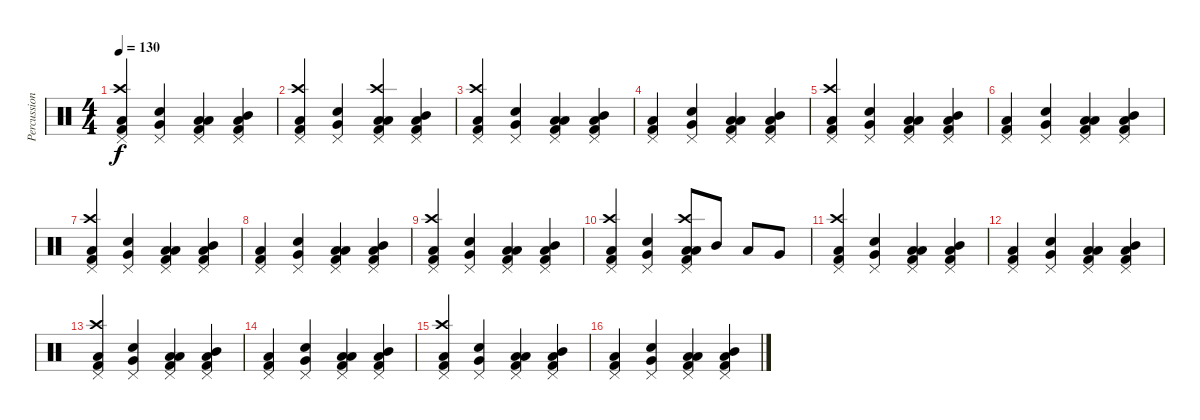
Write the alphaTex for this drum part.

\track ("Percussion" "Percussion") {instrument percussion}
\staff {score}
\articulation defaults
\ts (4 4)
\tempo 130
\clef neutral
\ks c
("Pedal Hi-Hat (hit)" "Crash high (hit)" "Kick (hit) 2" "Low Floor Tom (hit)").4{dy f} ("Pedal Hi-Hat (hit)" "Very Low Tom (hit)" "Snare (hit) 2").4 ("Pedal Hi-Hat (hit)" "Low Floor Tom (hit)" "Kick (hit) 2" "Low Tom (hit)").4 ("Pedal Hi-Hat (hit)" "Low Tom (hit)" "Kick (hit) 2" "Mid Tom (hit)").4 |
("Pedal Hi-Hat (hit)" "Crash high (hit)" "Kick (hit) 2" "Low Floor Tom (hit)").4 ("Pedal Hi-Hat (hit)" "Very Low Tom (hit)" "Snare (hit) 2").4 ("Pedal Hi-Hat (hit)" "Crash high (hit)" "Low Floor Tom (hit)" "Kick (hit) 2" "Low Tom (hit)").4 ("Pedal Hi-Hat (hit)" "Low Tom (hit)" "Kick (hit) 2" "Mid Tom (hit)").4 |
("Pedal Hi-Hat (hit)" "Crash high (hit)" "Kick (hit) 2" "Low Floor Tom (hit)").4 ("Pedal Hi-Hat (hit)" "Very Low Tom (hit)" "Snare (hit) 2").4 ("Pedal Hi-Hat (hit)" "Low Floor Tom (hit)" "Kick (hit) 2" "Low Tom (hit)").4 ("Pedal Hi-Hat (hit)" "Low Tom (hit)" "Kick (hit) 2" "Mid Tom (hit)").4 |
("Pedal Hi-Hat (hit)" "Kick (hit) 2" "Low Floor Tom (hit)").4 ("Pedal Hi-Hat (hit)" "Very Low Tom (hit)" "Snare (hit) 2").4 ("Pedal Hi-Hat (hit)" "Low Floor Tom (hit)" "Kick (hit) 2" "Low Tom (hit)").4 ("Pedal Hi-Hat (hit)" "Low Tom (hit)" "Kick (hit) 2" "Mid Tom (hit)").4 |
("Pedal Hi-Hat (hit)" "Crash high (hit)" "Kick (hit) 2" "Low Floor Tom (hit)").4 ("Pedal Hi-Hat (hit)" "Very Low Tom (hit)" "Snare (hit) 2").4 ("Pedal Hi-Hat (hit)" "Low Floor Tom (hit)" "Kick (hit) 2" "Low Tom (hit)").4 ("Pedal Hi-Hat (hit)" "Low Tom (hit)" "Kick (hit) 2" "Mid Tom (hit)").4 |
("Pedal Hi-Hat (hit)" "Kick (hit) 2" "Low Floor Tom (hit)").4 ("Pedal Hi-Hat (hit)" "Very Low Tom (hit)" "Snare (hit) 2").4 ("Pedal Hi-Hat (hit)" "Low Floor Tom (hit)" "Kick (hit) 2" "Low Tom (hit)").4 ("Pedal Hi-Hat (hit)" "Low Tom (hit)" "Kick (hit) 2" "Mid Tom (hit)").4 |
("Pedal Hi-Hat (hit)" "Crash high (hit)" "Kick (hit) 2" "Low Floor Tom (hit)").4 ("Pedal Hi-Hat (hit)" "Very Low Tom (hit)" "Snare (hit) 2").4 ("Pedal Hi-Hat (hit)" "Low Floor Tom (hit)" "Kick (hit) 2" "Low Tom (hit)").4 ("Pedal Hi-Hat (hit)" "Low Tom (hit)" "Kick (hit) 2" "Mid Tom (hit)").4 |
("Pedal Hi-Hat (hit)" "Kick (hit) 2" "Low Floor Tom (hit)").4 ("Pedal Hi-Hat (hit)" "Very Low Tom (hit)" "Snare (hit) 2").4 ("Pedal Hi-Hat (hit)" "Low Floor Tom (hit)" "Kick (hit) 2" "Low Tom (hit)").4 ("Pedal Hi-Hat (hit)" "Low Tom (hit)" "Kick (hit) 2" "Mid Tom (hit)").4 |
("Pedal Hi-Hat (hit)" "Crash high (hit)" "Kick (hit) 2" "Low Floor Tom (hit)").4 ("Pedal Hi-Hat (hit)" "Very Low Tom (hit)" "Snare (hit) 2").4 ("Pedal Hi-Hat (hit)" "Low Floor Tom (hit)" "Kick (hit) 2" "Low Tom (hit)").4 ("Pedal Hi-Hat (hit)" "Low Tom (hit)" "Kick (hit) 2" "Mid Tom (hit)").4 |
("Pedal Hi-Hat (hit)" "Crash high (hit)" "Kick (hit) 2" "Low Floor Tom (hit)").4 ("Pedal Hi-Hat (hit)" "Very Low Tom (hit)" "Snare (hit) 2").4 ("Pedal Hi-Hat (hit)" "Crash high (hit)" "Low Floor Tom (hit)" "Kick (hit) 2" "Low Tom (hit)").8 "Mid Tom (hit)".8 "Low Tom (hit)".8 "Very Low Tom (hit)".8 |
("Pedal Hi-Hat (hit)" "Crash high (hit)" "Kick (hit) 2" "Low Floor Tom (hit)").4 ("Pedal Hi-Hat (hit)" "Very Low Tom (hit)" "Snare (hit) 2").4 ("Pedal Hi-Hat (hit)" "Low Floor Tom (hit)" "Kick (hit) 2" "Low Tom (hit)").4 ("Pedal Hi-Hat (hit)" "Low Tom (hit)" "Kick (hit) 2" "Mid Tom (hit)").4 |
("Pedal Hi-Hat (hit)" "Kick (hit) 2" "Low Floor Tom (hit)").4 ("Pedal Hi-Hat (hit)" "Very Low Tom (hit)" "Snare (hit) 2").4 ("Pedal Hi-Hat (hit)" "Low Floor Tom (hit)" "Kick (hit) 2" "Low Tom (hit)").4 ("Pedal Hi-Hat (hit)" "Low Tom (hit)" "Kick (hit) 2" "Mid Tom (hit)").4 |
("Pedal Hi-Hat (hit)" "Crash high (hit)" "Kick (hit) 2" "Low Floor Tom (hit)").4 ("Pedal Hi-Hat (hit)" "Very Low Tom (hit)" "Snare (hit) 2").4 ("Pedal Hi-Hat (hit)" "Low Floor Tom (hit)" "Kick (hit) 2" "Low Tom (hit)").4 ("Pedal Hi-Hat (hit)" "Low Tom (hit)" "Kick (hit) 2" "Mid Tom (hit)").4 |
("Pedal Hi-Hat (hit)" "Kick (hit) 2" "Low Floor Tom (hit)").4 ("Pedal Hi-Hat (hit)" "Very Low Tom (hit)" "Snare (hit) 2").4 ("Pedal Hi-Hat (hit)" "Low Floor Tom (hit)" "Kick (hit) 2" "Low Tom (hit)").4 ("Pedal Hi-Hat (hit)" "Low Tom (hit)" "Kick (hit) 2" "Mid Tom (hit)").4 |
("Pedal Hi-Hat (hit)" "Crash high (hit)" "Kick (hit) 2" "Low Floor Tom (hit)").4 ("Pedal Hi-Hat (hit)" "Very Low Tom (hit)" "Snare (hit) 2").4 ("Pedal Hi-Hat (hit)" "Low Floor Tom (hit)" "Kick (hit) 2" "Low Tom (hit)").4 ("Pedal Hi-Hat (hit)" "Low Tom (hit)" "Kick (hit) 2" "Mid Tom (hit)").4 |
("Pedal Hi-Hat (hit)" "Kick (hit) 2" "Low Floor Tom (hit)").4 ("Pedal Hi-Hat (hit)" "Very Low Tom (hit)" "Snare (hit) 2").4 ("Pedal Hi-Hat (hit)" "Low Floor Tom (hit)" "Kick (hit) 2" "Low Tom (hit)").4 ("Pedal Hi-Hat (hit)" "Low Tom (hit)" "Kick (hit) 2" "Mid Tom (hit)").4
